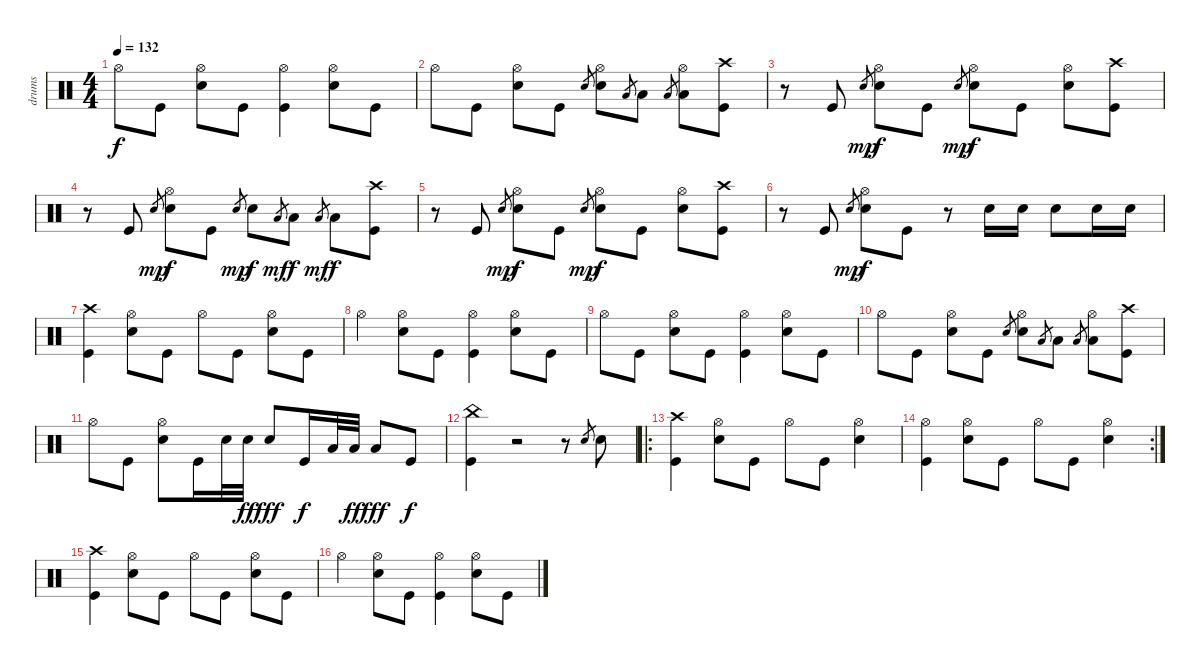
\track ("drums" "drums") {instrument percussion}
\staff {score}
\articulation defaults
\ts (4 4)
\tempo 132
\clef neutral
\ks c "Hi-Hat (open)".8{dy f} "Kick (hit)".8
("Hi-Hat (open)" "Electric Snare (hit)").8 "Kick (hit)".8 ("Hi-Hat (open)" "Kick (hit)").4 ("Hi-Hat (open)" "Electric Snare (hit)").8 "Kick (hit)".8 |
"Hi-Hat (open)".8 "Kick (hit)".8 ("Hi-Hat (open)" "Electric Snare (hit)").8 "Kick (hit)".8 "Electric Snare (hit)".8{gr} ("Hi-Hat (open)" "Electric Snare (hit)").8 "Low Tom (hit)".8{gr} "Low Tom (hit)".8 "Low Floor Tom (hit)".8{gr} ("Hi-Hat (open)" "Low Floor Tom (hit)").8 ("Crash high (hit)" "Kick (hit)").8 |
r.8 "Kick (hit)".8 "Electric Snare (hit)".8{gr dy mp} ("Hi-Hat (open)" "Electric Snare (hit)").8{dy f} "Kick (hit)".8 "Electric Snare (hit)".8{gr dy mp} ("Hi-Hat (open)" "Electric Snare (hit)").8{dy f} "Kick (hit)".8 ("Hi-Hat (open)" "Electric Snare (hit)").8 ("Crash high (hit)" "Kick (hit)").8 |
r.8 "Kick (hit)".8 "Electric Snare (hit)".8{gr dy mp} ("Hi-Hat (open)" "Electric Snare (hit)").8{dy f} "Kick (hit)".8 "Electric Snare (hit)".8{gr dy mp} "Electric Snare (hit)".8{dy f} "Low Tom (hit)".8{gr dy mf} "Low Tom (hit)".8{dy f} "Low Floor Tom (hit)".8{gr dy mf} "Low Floor Tom (hit)".8{dy f} ("Crash high (hit)" "Kick (hit)").8 |
r.8 "Kick (hit)".8 "Electric Snare (hit)".8{gr dy mp} ("Hi-Hat (open)" "Electric Snare (hit)").8{dy f} "Kick (hit)".8 "Electric Snare (hit)".8{gr dy mp} ("Hi-Hat (open)" "Electric Snare (hit)").8{dy f} "Kick (hit)".8 ("Hi-Hat (open)" "Electric Snare (hit)").8 ("Crash high (hit)" "Kick (hit)").8 |
r.8 "Kick (hit)".8 "Electric Snare (hit)".8{gr dy mp} ("Hi-Hat (open)" "Electric Snare (hit)").8{dy f} "Kick (hit)".8 r.8 "Electric Snare (hit)".16 "Electric Snare (hit)".16 "Electric Snare (hit)".8 "Electric Snare (hit)".16 "Electric Snare (hit)".16 |
("Crash high (hit)" "Kick (hit)").4 ("Hi-Hat (open)" "Electric Snare (hit)").8 "Kick (hit)".8 "Hi-Hat (open)".8 "Kick (hit)".8 ("Hi-Hat (open)" "Electric Snare (hit)").8 "Kick (hit)".8 |
"Hi-Hat (open)".4 ("Hi-Hat (open)" "Electric Snare (hit)").8 "Kick (hit)".8 ("Hi-Hat (open)" "Kick (hit)").4 ("Hi-Hat (open)" "Electric Snare (hit)").8 "Kick (hit)".8 |
"Hi-Hat (open)".8 "Kick (hit)".8 ("Hi-Hat (open)" "Electric Snare (hit)").8 "Kick (hit)".8 ("Hi-Hat (open)" "Kick (hit)").4 ("Hi-Hat (open)" "Electric Snare (hit)").8 "Kick (hit)".8 |
"Hi-Hat (open)".8 "Kick (hit)".8 ("Hi-Hat (open)" "Electric Snare (hit)").8 "Kick (hit)".8 "Electric Snare (hit)".8{gr} ("Hi-Hat (open)" "Electric Snare (hit)").8 "Low Tom (hit)".8{gr} "Low Tom (hit)".8 "Low Floor Tom (hit)".8{gr} ("Hi-Hat (open)" "Low Floor Tom (hit)").8 ("Crash high (hit)" "Kick (hit)").8 |
"Hi-Hat (open)".8 "Kick (hit)".8 ("Hi-Hat (open)" "Electric Snare (hit)").8 "Kick (hit)".16 "Electric Snare (hit)".32 "Electric Snare (hit)".32{dy ff} "Electric Snare (hit)".8{dy fff} "Kick (hit)".16{dy f} "Low Tom (hit)".32 "Low Tom (hit)".32{dy ff} "Low Floor Tom (hit)".8{dy fff} "Kick (hit)".8{dy f} |
("China (hit)" "Kick (hit)").4 r.2 r.8 "Electric Snare (hit)".8{gr} "Electric Snare (hit)".8 |
\ro
("Crash high (hit)" "Kick (hit)").4 ("Hi-Hat (open)" "Electric Snare (hit)").8 "Kick (hit)".8 "Hi-Hat (open)".8 "Kick (hit)".8 ("Hi-Hat (open)" "Electric Snare (hit)").4 |
\rc 2
("Hi-Hat (open)" "Kick (hit)").4 ("Hi-Hat (open)" "Electric Snare (hit)").8 "Kick (hit)".8 "Hi-Hat (open)".8 "Kick (hit)".8 ("Hi-Hat (open)" "Electric Snare (hit)").4 |
("Crash high (hit)" "Kick (hit)").4 ("Hi-Hat (open)" "Electric Snare (hit)").8 "Kick (hit)".8 "Hi-Hat (open)".8 "Kick (hit)".8 ("Hi-Hat (open)" "Electric Snare (hit)").8 "Kick (hit)".8 |
"Hi-Hat (open)".4 ("Hi-Hat (open)" "Electric Snare (hit)").8 "Kick (hit)".8 ("Hi-Hat (open)" "Kick (hit)").4 ("Hi-Hat (open)" "Electric Snare (hit)").8 "Kick (hit)".8
